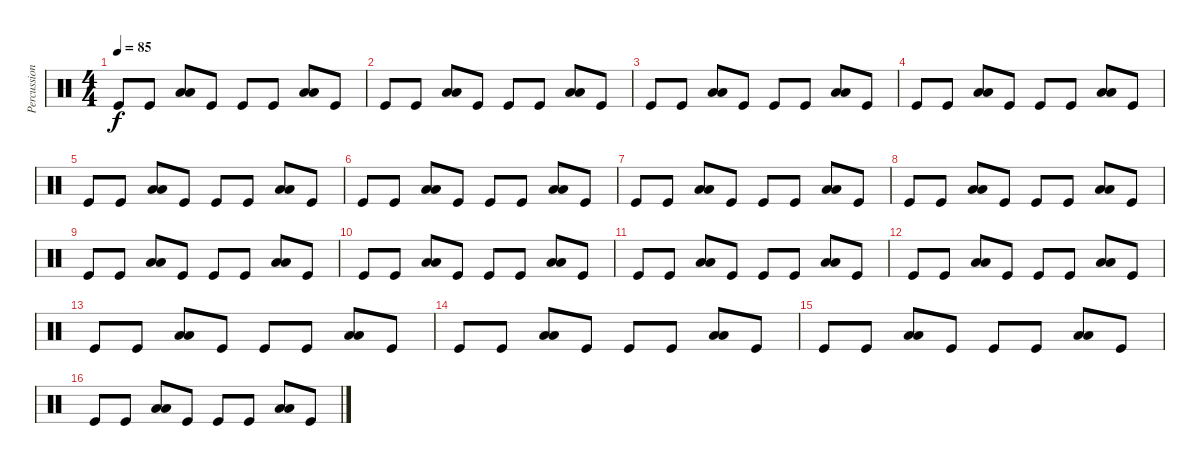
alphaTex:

\track ("Percussions" "Percussion") {instrument percussion}
\staff {score}
\articulation defaults
\ts (4 4)
\tempo 85
\clef neutral
\ks c "Kick (hit)".8{dy f} "Kick (hit)".8
("Low Tom (hit)" "Low Floor Tom (hit)").8 "Kick (hit)".8 "Kick (hit)".8 "Kick (hit)".8 ("Low Tom (hit)" "Low Floor Tom (hit)").8 "Kick (hit)".8 |
"Kick (hit)".8 "Kick (hit)".8 ("Low Tom (hit)" "Low Floor Tom (hit)").8 "Kick (hit)".8 "Kick (hit)".8 "Kick (hit)".8 ("Low Tom (hit)" "Low Floor Tom (hit)").8 "Kick (hit)".8 |
"Kick (hit)".8 "Kick (hit)".8 ("Low Tom (hit)" "Low Floor Tom (hit)").8 "Kick (hit)".8 "Kick (hit)".8 "Kick (hit)".8 ("Low Tom (hit)" "Low Floor Tom (hit)").8 "Kick (hit)".8 |
"Kick (hit)".8 "Kick (hit)".8 ("Low Tom (hit)" "Low Floor Tom (hit)").8 "Kick (hit)".8 "Kick (hit)".8 "Kick (hit)".8 ("Low Tom (hit)" "Low Floor Tom (hit)").8 "Kick (hit)".8 |
"Kick (hit)".8 "Kick (hit)".8 ("Low Tom (hit)" "Low Floor Tom (hit)").8 "Kick (hit)".8 "Kick (hit)".8 "Kick (hit)".8 ("Low Tom (hit)" "Low Floor Tom (hit)").8 "Kick (hit)".8 |
"Kick (hit)".8 "Kick (hit)".8 ("Low Tom (hit)" "Low Floor Tom (hit)").8 "Kick (hit)".8 "Kick (hit)".8 "Kick (hit)".8 ("Low Tom (hit)" "Low Floor Tom (hit)").8 "Kick (hit)".8 |
"Kick (hit)".8 "Kick (hit)".8 ("Low Tom (hit)" "Low Floor Tom (hit)").8 "Kick (hit)".8 "Kick (hit)".8 "Kick (hit)".8 ("Low Tom (hit)" "Low Floor Tom (hit)").8 "Kick (hit)".8 |
"Kick (hit)".8 "Kick (hit)".8 ("Low Tom (hit)" "Low Floor Tom (hit)").8 "Kick (hit)".8 "Kick (hit)".8 "Kick (hit)".8 ("Low Tom (hit)" "Low Floor Tom (hit)").8 "Kick (hit)".8 |
"Kick (hit)".8 "Kick (hit)".8 ("Low Tom (hit)" "Low Floor Tom (hit)").8 "Kick (hit)".8 "Kick (hit)".8 "Kick (hit)".8 ("Low Tom (hit)" "Low Floor Tom (hit)").8 "Kick (hit)".8 |
"Kick (hit)".8 "Kick (hit)".8 ("Low Tom (hit)" "Low Floor Tom (hit)").8 "Kick (hit)".8 "Kick (hit)".8 "Kick (hit)".8 ("Low Tom (hit)" "Low Floor Tom (hit)").8 "Kick (hit)".8 |
"Kick (hit)".8 "Kick (hit)".8 ("Low Tom (hit)" "Low Floor Tom (hit)").8 "Kick (hit)".8 "Kick (hit)".8 "Kick (hit)".8 ("Low Tom (hit)" "Low Floor Tom (hit)").8 "Kick (hit)".8 |
"Kick (hit)".8 "Kick (hit)".8 ("Low Tom (hit)" "Low Floor Tom (hit)").8 "Kick (hit)".8 "Kick (hit)".8 "Kick (hit)".8 ("Low Tom (hit)" "Low Floor Tom (hit)").8 "Kick (hit)".8 |
"Kick (hit)".8 "Kick (hit)".8 ("Low Tom (hit)" "Low Floor Tom (hit)").8 "Kick (hit)".8 "Kick (hit)".8 "Kick (hit)".8 ("Low Tom (hit)" "Low Floor Tom (hit)").8 "Kick (hit)".8 |
"Kick (hit)".8 "Kick (hit)".8 ("Low Tom (hit)" "Low Floor Tom (hit)").8 "Kick (hit)".8 "Kick (hit)".8 "Kick (hit)".8 ("Low Tom (hit)" "Low Floor Tom (hit)").8 "Kick (hit)".8 |
"Kick (hit)".8 "Kick (hit)".8 ("Low Tom (hit)" "Low Floor Tom (hit)").8 "Kick (hit)".8 "Kick (hit)".8 "Kick (hit)".8 ("Low Tom (hit)" "Low Floor Tom (hit)").8 "Kick (hit)".8 |
"Kick (hit)".8 "Kick (hit)".8 ("Low Tom (hit)" "Low Floor Tom (hit)").8 "Kick (hit)".8 "Kick (hit)".8 "Kick (hit)".8 ("Low Tom (hit)" "Low Floor Tom (hit)").8 "Kick (hit)".8
